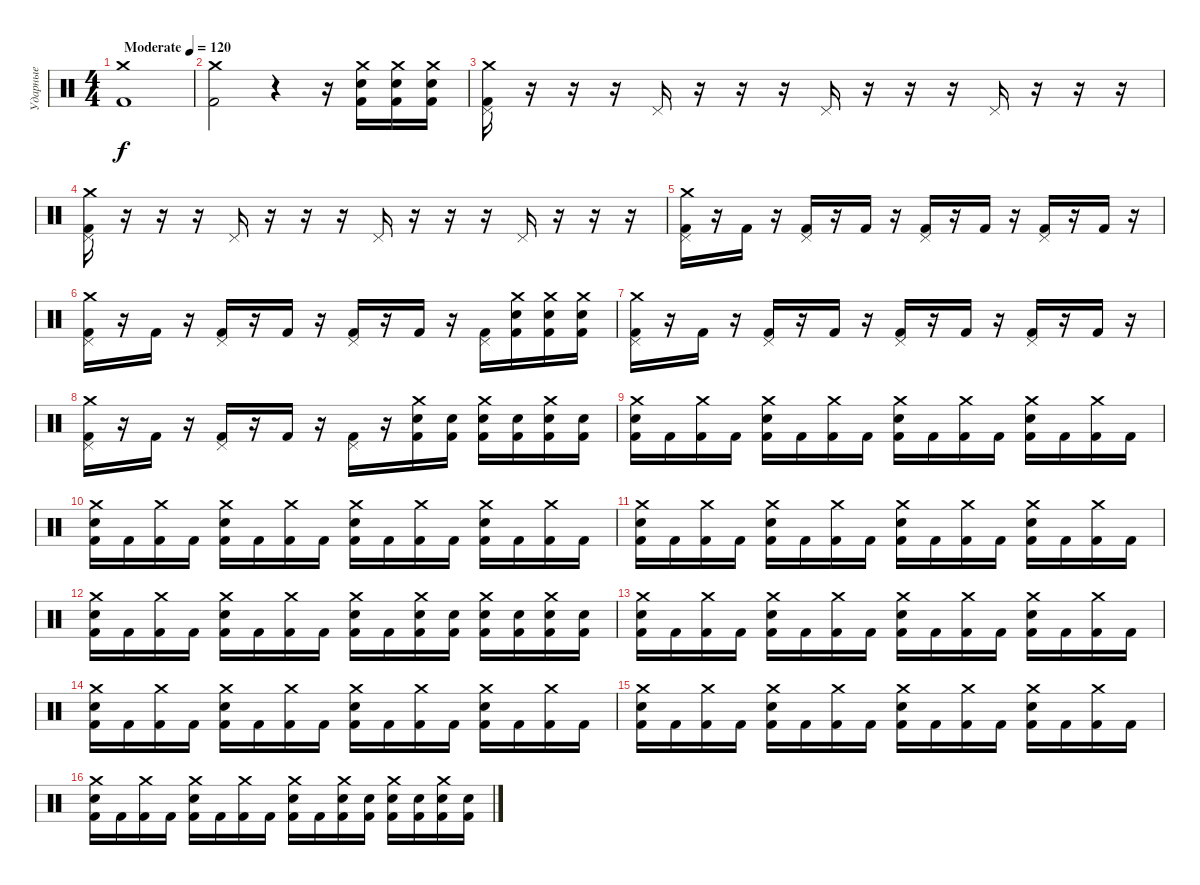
\track ("Ударные" "Ударные") {instrument percussion}
\staff
\articulation defaults
\ts (4 4)
\tempo (120 "Moderate")
\clef neutral
\ks c
("Crash medium (hit)" "Kick (hit) 2").1{dy f} |
("Crash medium (hit)" "Kick (hit) 2").2 r.4 r.16 ("Crash medium (hit)" "Kick (hit) 2" "Electric Snare (hit)").16 ("Crash medium (hit)" "Kick (hit) 2" "Electric Snare (hit)").16 ("Crash medium (hit)" "Kick (hit) 2" "Electric Snare (hit)").16 |
("Crash medium (hit)" "Kick (hit) 2" "Pedal Hi-Hat (hit)").16 r.16 r.16 r.16 "Pedal Hi-Hat (hit)".16 r.16 r.16 r.16 "Pedal Hi-Hat (hit)".16 r.16 r.16 r.16 "Pedal Hi-Hat (hit)".16 r.16 r.16 r.16 |
("Crash medium (hit)" "Kick (hit) 2" "Pedal Hi-Hat (hit)").16 r.16 r.16 r.16 "Pedal Hi-Hat (hit)".16 r.16 r.16 r.16 "Pedal Hi-Hat (hit)".16 r.16 r.16 r.16 "Pedal Hi-Hat (hit)".16 r.16 r.16 r.16 |
("Crash medium (hit)" "Kick (hit) 2" "Pedal Hi-Hat (hit)").16 r.16 "Kick (hit) 2".16 r.16 ("Kick (hit) 2" "Pedal Hi-Hat (hit)").16 r.16 "Kick (hit) 2".16 r.16 ("Kick (hit) 2" "Pedal Hi-Hat (hit)").16 r.16 "Kick (hit) 2".16 r.16 ("Kick (hit) 2" "Pedal Hi-Hat (hit)").16 r.16 "Kick (hit) 2".16 r.16 |
("Crash medium (hit)" "Kick (hit) 2" "Pedal Hi-Hat (hit)").16 r.16 "Kick (hit) 2".16 r.16 ("Kick (hit) 2" "Pedal Hi-Hat (hit)").16 r.16 "Kick (hit) 2".16 r.16 ("Kick (hit) 2" "Pedal Hi-Hat (hit)").16 r.16 "Kick (hit) 2".16 r.16 ("Kick (hit) 2" "Pedal Hi-Hat (hit)").16 ("Crash medium (hit)" "Kick (hit) 2" "Electric Snare (hit)").16 ("Crash medium (hit)" "Kick (hit) 2" "Electric Snare (hit)").16 ("Crash medium (hit)" "Kick (hit) 2" "Electric Snare (hit)").16 |
("Crash medium (hit)" "Kick (hit) 2" "Pedal Hi-Hat (hit)").16 r.16 "Kick (hit) 2".16 r.16 ("Kick (hit) 2" "Pedal Hi-Hat (hit)").16 r.16 "Kick (hit) 2".16 r.16 ("Kick (hit) 2" "Pedal Hi-Hat (hit)").16 r.16 "Kick (hit) 2".16 r.16 ("Kick (hit) 2" "Pedal Hi-Hat (hit)").16 r.16 "Kick (hit) 2".16 r.16 |
("Crash medium (hit)" "Kick (hit) 2" "Pedal Hi-Hat (hit)").16 r.16 "Kick (hit) 2".16 r.16 ("Kick (hit) 2" "Pedal Hi-Hat (hit)").16 r.16 "Kick (hit) 2".16 r.16 ("Kick (hit) 2" "Pedal Hi-Hat (hit)").16 r.16 ("Crash medium (hit)" "Kick (hit) 2" "Electric Snare (hit)").16 ("Kick (hit) 2" "Electric Snare (hit)").16 ("Crash medium (hit)" "Kick (hit) 2" "Electric Snare (hit)").16 ("Kick (hit) 2" "Electric Snare (hit)").16 ("Crash medium (hit)" "Kick (hit) 2" "Electric Snare (hit)").16 ("Kick (hit) 2" "Electric Snare (hit)").16 |
("Crash medium (hit)" "Kick (hit) 2" "Electric Snare (hit)").16 "Kick (hit) 2".16 ("Crash medium (hit)" "Kick (hit) 2").16 "Kick (hit) 2".16 ("Crash medium (hit)" "Kick (hit) 2" "Electric Snare (hit)").16 "Kick (hit) 2".16 ("Crash medium (hit)" "Kick (hit) 2").16 "Kick (hit) 2".16 ("Crash medium (hit)" "Kick (hit) 2" "Electric Snare (hit)").16 "Kick (hit) 2".16 ("Crash medium (hit)" "Kick (hit) 2").16 "Kick (hit) 2".16 ("Crash medium (hit)" "Kick (hit) 2" "Electric Snare (hit)").16 "Kick (hit) 2".16 ("Crash medium (hit)" "Kick (hit) 2").16 "Kick (hit) 2".16 |
("Crash medium (hit)" "Kick (hit) 2" "Electric Snare (hit)").16 "Kick (hit) 2".16 ("Crash medium (hit)" "Kick (hit) 2").16 "Kick (hit) 2".16 ("Crash medium (hit)" "Kick (hit) 2" "Electric Snare (hit)").16 "Kick (hit) 2".16 ("Crash medium (hit)" "Kick (hit) 2").16 "Kick (hit) 2".16 ("Crash medium (hit)" "Kick (hit) 2" "Electric Snare (hit)").16 "Kick (hit) 2".16 ("Crash medium (hit)" "Kick (hit) 2").16 "Kick (hit) 2".16 ("Crash medium (hit)" "Kick (hit) 2" "Electric Snare (hit)").16 "Kick (hit) 2".16 ("Crash medium (hit)" "Kick (hit) 2").16 "Kick (hit) 2".16 |
("Crash medium (hit)" "Kick (hit) 2" "Electric Snare (hit)").16 "Kick (hit) 2".16 ("Crash medium (hit)" "Kick (hit) 2").16 "Kick (hit) 2".16 ("Crash medium (hit)" "Kick (hit) 2" "Electric Snare (hit)").16 "Kick (hit) 2".16 ("Crash medium (hit)" "Kick (hit) 2").16 "Kick (hit) 2".16 ("Crash medium (hit)" "Kick (hit) 2" "Electric Snare (hit)").16 "Kick (hit) 2".16 ("Crash medium (hit)" "Kick (hit) 2").16 "Kick (hit) 2".16 ("Crash medium (hit)" "Kick (hit) 2" "Electric Snare (hit)").16 "Kick (hit) 2".16 ("Crash medium (hit)" "Kick (hit) 2").16 "Kick (hit) 2".16 |
("Crash medium (hit)" "Kick (hit) 2" "Electric Snare (hit)").16 "Kick (hit) 2".16 ("Crash medium (hit)" "Kick (hit) 2").16 "Kick (hit) 2".16 ("Crash medium (hit)" "Kick (hit) 2" "Electric Snare (hit)").16 "Kick (hit) 2".16 ("Crash medium (hit)" "Kick (hit) 2").16 "Kick (hit) 2".16 ("Crash medium (hit)" "Kick (hit) 2" "Electric Snare (hit)").16 "Kick (hit) 2".16 ("Crash medium (hit)" "Kick (hit) 2" "Electric Snare (hit)").16 ("Kick (hit) 2" "Electric Snare (hit)").16 ("Crash medium (hit)" "Kick (hit) 2" "Electric Snare (hit)").16 ("Kick (hit) 2" "Electric Snare (hit)").16 ("Crash medium (hit)" "Kick (hit) 2" "Electric Snare (hit)").16 ("Kick (hit) 2" "Electric Snare (hit)").16 |
("Crash medium (hit)" "Kick (hit) 2" "Electric Snare (hit)").16 "Kick (hit) 2".16 ("Crash medium (hit)" "Kick (hit) 2").16 "Kick (hit) 2".16 ("Crash medium (hit)" "Kick (hit) 2" "Electric Snare (hit)").16 "Kick (hit) 2".16 ("Crash medium (hit)" "Kick (hit) 2").16 "Kick (hit) 2".16 ("Crash medium (hit)" "Kick (hit) 2" "Electric Snare (hit)").16 "Kick (hit) 2".16 ("Crash medium (hit)" "Kick (hit) 2").16 "Kick (hit) 2".16 ("Crash medium (hit)" "Kick (hit) 2" "Electric Snare (hit)").16 "Kick (hit) 2".16 ("Crash medium (hit)" "Kick (hit) 2").16 "Kick (hit) 2".16 |
("Crash medium (hit)" "Kick (hit) 2" "Electric Snare (hit)").16 "Kick (hit) 2".16 ("Crash medium (hit)" "Kick (hit) 2").16 "Kick (hit) 2".16 ("Crash medium (hit)" "Kick (hit) 2" "Electric Snare (hit)").16 "Kick (hit) 2".16 ("Crash medium (hit)" "Kick (hit) 2").16 "Kick (hit) 2".16 ("Crash medium (hit)" "Kick (hit) 2" "Electric Snare (hit)").16 "Kick (hit) 2".16 ("Crash medium (hit)" "Kick (hit) 2").16 "Kick (hit) 2".16 ("Crash medium (hit)" "Kick (hit) 2" "Electric Snare (hit)").16 "Kick (hit) 2".16 ("Crash medium (hit)" "Kick (hit) 2").16 "Kick (hit) 2".16 |
("Crash medium (hit)" "Kick (hit) 2" "Electric Snare (hit)").16 "Kick (hit) 2".16 ("Crash medium (hit)" "Kick (hit) 2").16 "Kick (hit) 2".16 ("Crash medium (hit)" "Kick (hit) 2" "Electric Snare (hit)").16 "Kick (hit) 2".16 ("Crash medium (hit)" "Kick (hit) 2").16 "Kick (hit) 2".16 ("Crash medium (hit)" "Kick (hit) 2" "Electric Snare (hit)").16 "Kick (hit) 2".16 ("Crash medium (hit)" "Kick (hit) 2").16 "Kick (hit) 2".16 ("Crash medium (hit)" "Kick (hit) 2" "Electric Snare (hit)").16 "Kick (hit) 2".16 ("Crash medium (hit)" "Kick (hit) 2").16 "Kick (hit) 2".16 |
("Crash medium (hit)" "Kick (hit) 2" "Electric Snare (hit)").16 "Kick (hit) 2".16 ("Crash medium (hit)" "Kick (hit) 2").16 "Kick (hit) 2".16 ("Crash medium (hit)" "Kick (hit) 2" "Electric Snare (hit)").16 "Kick (hit) 2".16 ("Crash medium (hit)" "Kick (hit) 2").16 "Kick (hit) 2".16 ("Crash medium (hit)" "Kick (hit) 2" "Electric Snare (hit)").16 "Kick (hit) 2".16 ("Crash medium (hit)" "Kick (hit) 2" "Electric Snare (hit)").16 ("Kick (hit) 2" "Electric Snare (hit)").16 ("Crash medium (hit)" "Kick (hit) 2" "Electric Snare (hit)").16 ("Kick (hit) 2" "Electric Snare (hit)").16 ("Crash medium (hit)" "Kick (hit) 2" "Electric Snare (hit)").16 ("Kick (hit) 2" "Electric Snare (hit)").16
